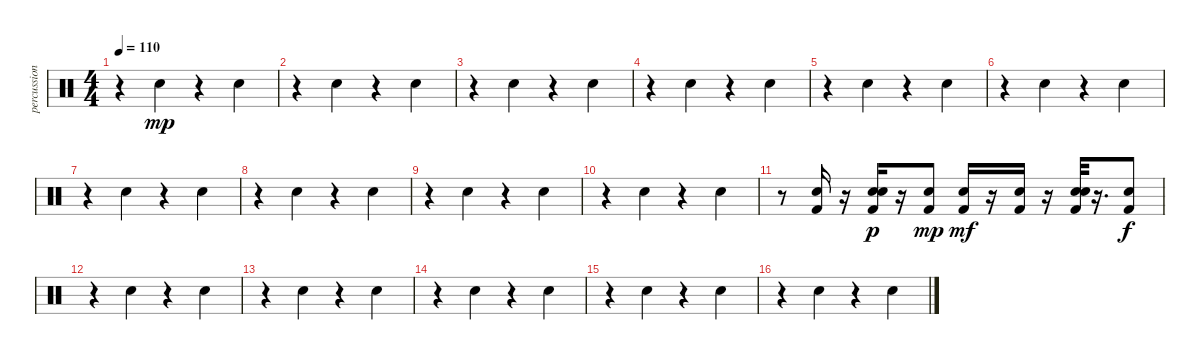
\track ("percussions 3" "percussion") {instrument percussion}
\staff {score}
\articulation defaults
\ts (4 4)
\tempo 110
\clef neutral
\ks c
r.4{dy f} "Electric Snare (hit)".4{dy mp} r.4 "Electric Snare (hit)".4 |
r.4 "Electric Snare (hit)".4 r.4 "Electric Snare (hit)".4 |
r.4 "Electric Snare (hit)".4 r.4 "Electric Snare (hit)".4 |
r.4 "Electric Snare (hit)".4 r.4 "Electric Snare (hit)".4 |
r.4 "Electric Snare (hit)".4 r.4 "Electric Snare (hit)".4 |
r.4 "Electric Snare (hit)".4 r.4 "Electric Snare (hit)".4 |
r.4 "Electric Snare (hit)".4 r.4 "Electric Snare (hit)".4 |
r.4 "Electric Snare (hit)".4 r.4 "Electric Snare (hit)".4 |
r.4 "Electric Snare (hit)".4 r.4 "Electric Snare (hit)".4 |
r.4 "Electric Snare (hit)".4 r.4 "Electric Snare (hit)".4 |
r.8 ("Kick (hit) 2" "Electric Snare (hit)").16 r.16 ("Electric Snare (hit)" "Kick (hit) 2" "Electric Snare (hit)").16{dy p} r.16 ("Kick (hit) 2" "Electric Snare (hit)").8{dy mp} ("Kick (hit) 2" "Electric Snare (hit)").16{dy mf} r.16 ("Kick (hit) 2" "Electric Snare (hit)").16 r.16 ("Electric Snare (hit)" "Kick (hit) 2" "Electric Snare (hit)").32 r.16{d} ("Kick (hit) 2" "Electric Snare (hit)").8{dy f} |
r.4 "Electric Snare (hit)".4 r.4 "Electric Snare (hit)".4 |
r.4 "Electric Snare (hit)".4 r.4 "Electric Snare (hit)".4 |
r.4 "Electric Snare (hit)".4 r.4 "Electric Snare (hit)".4 |
r.4 "Electric Snare (hit)".4 r.4 "Electric Snare (hit)".4 |
r.4 "Electric Snare (hit)".4 r.4 "Electric Snare (hit)".4
